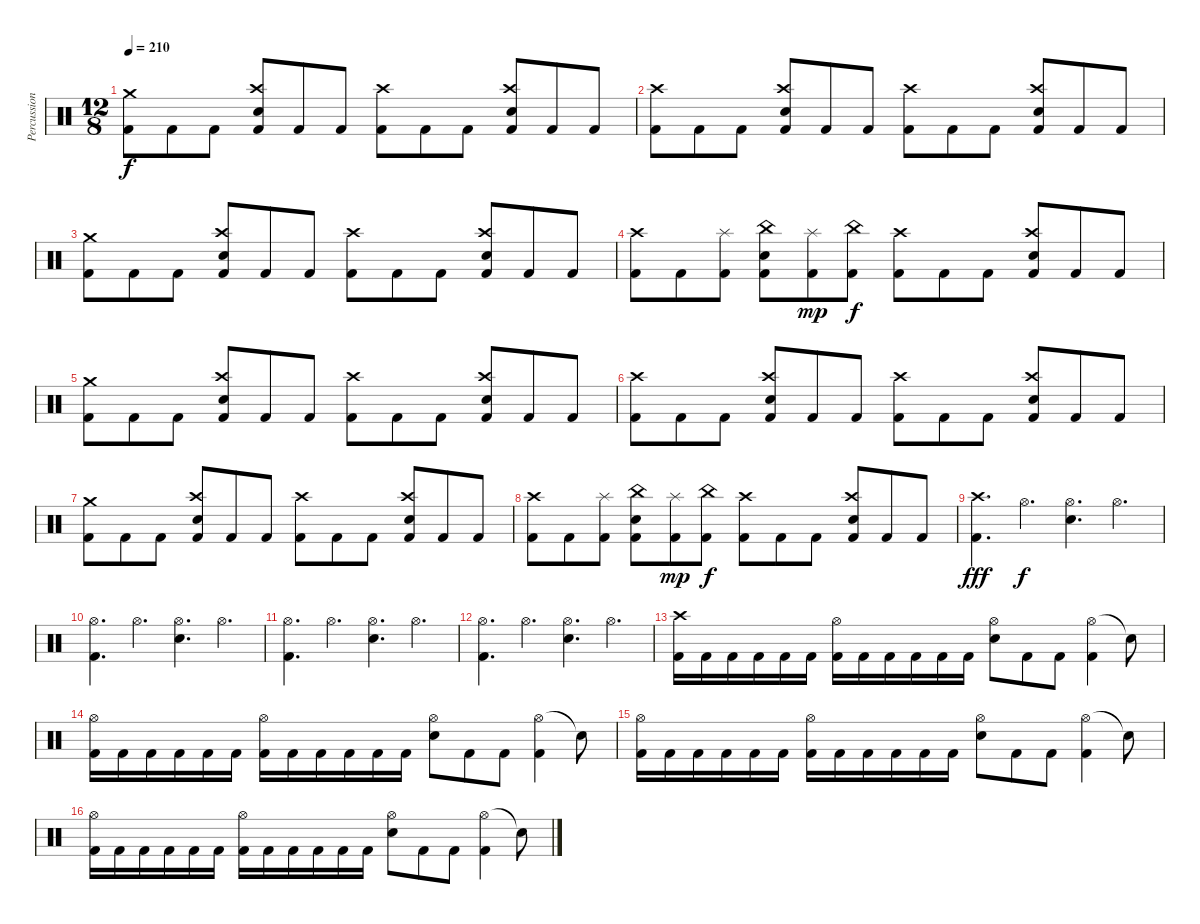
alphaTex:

\track ("Percussions" "Percussion") {instrument percussion}
\staff {score}
\articulation defaults
\ts (12 8)
\tempo 210
\clef neutral
\ks c
("Crash medium (hit)" "Kick (hit) 2").8{dy f} "Kick (hit) 2".8 "Kick (hit) 2".8 ("Crash high (hit)" "Snare (hit) 2" "Kick (hit) 2").8 "Kick (hit) 2".8 "Kick (hit) 2".8 ("Crash high (hit)" "Kick (hit) 2").8 "Kick (hit) 2".8 "Kick (hit) 2".8 ("Crash high (hit)" "Snare (hit) 2" "Kick (hit) 2").8 "Kick (hit) 2".8 "Kick (hit) 2".8 |
("Crash high (hit)" "Kick (hit) 2").8 "Kick (hit) 2".8 "Kick (hit) 2".8 ("Crash high (hit)" "Snare (hit) 2" "Kick (hit) 2").8 "Kick (hit) 2".8 "Kick (hit) 2".8 ("Crash high (hit)" "Kick (hit) 2").8 "Kick (hit) 2".8 "Kick (hit) 2".8 ("Crash high (hit)" "Snare (hit) 2" "Kick (hit) 2").8 "Kick (hit) 2".8 "Kick (hit) 2".8 |
("Crash medium (hit)" "Kick (hit) 2").8 "Kick (hit) 2".8 "Kick (hit) 2".8 ("Crash high (hit)" "Snare (hit) 2" "Kick (hit) 2").8 "Kick (hit) 2".8 "Kick (hit) 2".8 ("Crash high (hit)" "Kick (hit) 2").8 "Kick (hit) 2".8 "Kick (hit) 2".8 ("Crash high (hit)" "Snare (hit) 2" "Kick (hit) 2").8 "Kick (hit) 2".8 "Kick (hit) 2".8 |
("Crash high (hit)" "Kick (hit) 2").8 "Kick (hit) 2".8 ("Splash (hit)" "Kick (hit) 2").8 ("China (hit)" "Snare (hit) 2" "Kick (hit) 2").8 ("Splash (hit)" "Kick (hit) 2").8{dy mp} ("China (hit)" "Kick (hit) 2").8{dy f} ("Crash high (hit)" "Kick (hit) 2").8 "Kick (hit) 2".8 "Kick (hit) 2".8 ("Crash high (hit)" "Snare (hit) 2" "Kick (hit) 2").8 "Kick (hit) 2".8 "Kick (hit) 2".8 |
("Crash medium (hit)" "Kick (hit) 2").8 "Kick (hit) 2".8 "Kick (hit) 2".8 ("Crash high (hit)" "Snare (hit) 2" "Kick (hit) 2").8 "Kick (hit) 2".8 "Kick (hit) 2".8 ("Crash high (hit)" "Kick (hit) 2").8 "Kick (hit) 2".8 "Kick (hit) 2".8 ("Crash high (hit)" "Snare (hit) 2" "Kick (hit) 2").8 "Kick (hit) 2".8 "Kick (hit) 2".8 |
("Crash high (hit)" "Kick (hit) 2").8 "Kick (hit) 2".8 "Kick (hit) 2".8 ("Crash high (hit)" "Snare (hit) 2" "Kick (hit) 2").8 "Kick (hit) 2".8 "Kick (hit) 2".8 ("Crash high (hit)" "Kick (hit) 2").8 "Kick (hit) 2".8 "Kick (hit) 2".8 ("Crash high (hit)" "Snare (hit) 2" "Kick (hit) 2").8 "Kick (hit) 2".8 "Kick (hit) 2".8 |
("Crash medium (hit)" "Kick (hit) 2").8 "Kick (hit) 2".8 "Kick (hit) 2".8 ("Crash high (hit)" "Snare (hit) 2" "Kick (hit) 2").8 "Kick (hit) 2".8 "Kick (hit) 2".8 ("Crash high (hit)" "Kick (hit) 2").8 "Kick (hit) 2".8 "Kick (hit) 2".8 ("Crash high (hit)" "Snare (hit) 2" "Kick (hit) 2").8 "Kick (hit) 2".8 "Kick (hit) 2".8 |
("Crash high (hit)" "Kick (hit) 2").8 "Kick (hit) 2".8 ("Splash (hit)" "Kick (hit) 2").8 ("China (hit)" "Snare (hit) 2" "Kick (hit) 2").8 ("Splash (hit)" "Kick (hit) 2").8{dy mp} ("China (hit)" "Kick (hit) 2").8{dy f} ("Crash high (hit)" "Kick (hit) 2").8 "Kick (hit) 2".8 "Kick (hit) 2".8 ("Crash high (hit)" "Snare (hit) 2" "Kick (hit) 2").8 "Kick (hit) 2".8 "Kick (hit) 2".8 |
("Crash high (hit)" "Kick (hit) 2").4{d dy fff} "Hi-Hat (open)".4{d dy f} ("Hi-Hat (open)" "Snare (hit) 2").4{d} "Hi-Hat (open)".4{d} |
("Hi-Hat (open)" "Kick (hit) 2").4{d} "Hi-Hat (open)".4{d} ("Hi-Hat (open)" "Snare (hit) 2").4{d} "Hi-Hat (open)".4{d} |
("Hi-Hat (open)" "Kick (hit) 2").4{d} "Hi-Hat (open)".4{d} ("Hi-Hat (open)" "Snare (hit) 2").4{d} "Hi-Hat (open)".4{d} |
("Hi-Hat (open)" "Kick (hit) 2").4{d} "Hi-Hat (open)".4{d} ("Hi-Hat (open)" "Snare (hit) 2").4{d} "Hi-Hat (open)".4{d} |
("Crash high (hit)" "Kick (hit) 2").16 "Kick (hit) 2".16 "Kick (hit) 2".16 "Kick (hit) 2".16 "Kick (hit) 2".16 "Kick (hit) 2".16 ("Hi-Hat (open)" "Kick (hit) 2").16 "Kick (hit) 2".16 "Kick (hit) 2".16 "Kick (hit) 2".16 "Kick (hit) 2".16 "Kick (hit) 2".16 ("Hi-Hat (open)" "Snare (hit) 2").8 "Kick (hit) 2".8 "Kick (hit) 2".8 ("Hi-Hat (open)" "Kick (hit) 2").4 "Snare (hit)"{t}.8 |
("Hi-Hat (open)" "Kick (hit) 2").16 "Kick (hit) 2".16 "Kick (hit) 2".16 "Kick (hit) 2".16 "Kick (hit) 2".16 "Kick (hit) 2".16 ("Hi-Hat (open)" "Kick (hit) 2").16 "Kick (hit) 2".16 "Kick (hit) 2".16 "Kick (hit) 2".16 "Kick (hit) 2".16 "Kick (hit) 2".16 ("Hi-Hat (open)" "Snare (hit) 2").8 "Kick (hit) 2".8 "Kick (hit) 2".8 ("Hi-Hat (open)" "Kick (hit) 2").4 "Snare (hit)"{t}.8 |
("Hi-Hat (open)" "Kick (hit) 2").16 "Kick (hit) 2".16 "Kick (hit) 2".16 "Kick (hit) 2".16 "Kick (hit) 2".16 "Kick (hit) 2".16 ("Hi-Hat (open)" "Kick (hit) 2").16 "Kick (hit) 2".16 "Kick (hit) 2".16 "Kick (hit) 2".16 "Kick (hit) 2".16 "Kick (hit) 2".16 ("Hi-Hat (open)" "Snare (hit) 2").8 "Kick (hit) 2".8 "Kick (hit) 2".8 ("Hi-Hat (open)" "Kick (hit) 2").4 "Snare (hit)"{t}.8 |
("Hi-Hat (open)" "Kick (hit) 2").16 "Kick (hit) 2".16 "Kick (hit) 2".16 "Kick (hit) 2".16 "Kick (hit) 2".16 "Kick (hit) 2".16 ("Hi-Hat (open)" "Kick (hit) 2").16 "Kick (hit) 2".16 "Kick (hit) 2".16 "Kick (hit) 2".16 "Kick (hit) 2".16 "Kick (hit) 2".16 ("Hi-Hat (open)" "Snare (hit) 2").8 "Kick (hit) 2".8 "Kick (hit) 2".8 ("Hi-Hat (open)" "Kick (hit) 2").4 "Snare (hit)"{t}.8
